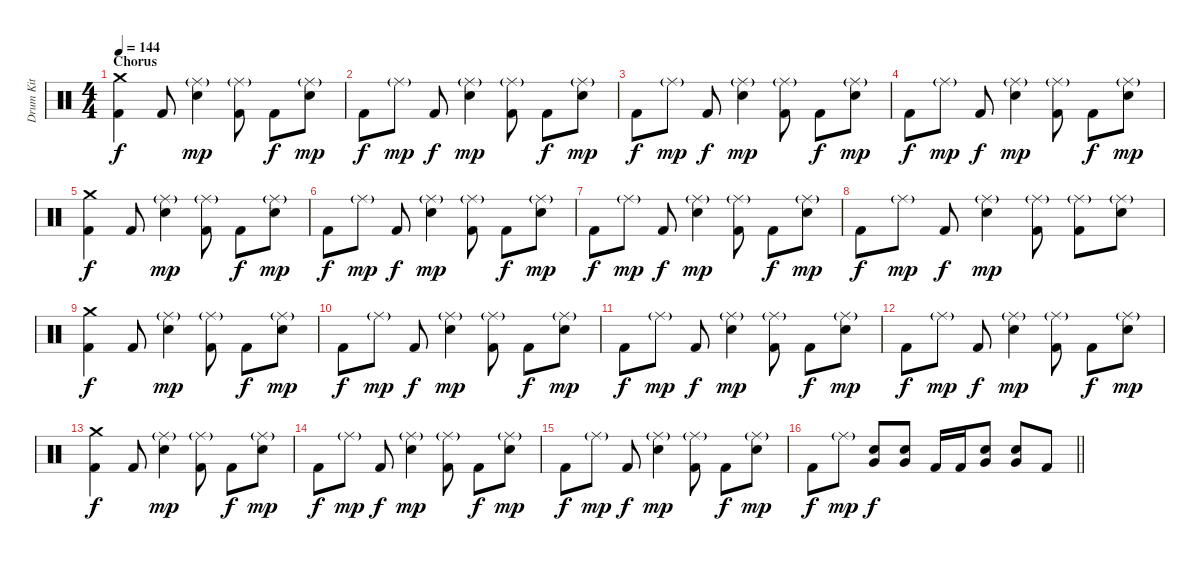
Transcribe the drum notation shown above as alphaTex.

\track ("Drum Kit" "Drum Kit") {instrument percussion}
\staff {score}
\articulation defaults
\ts (4 4)
\section ("" "Chorus")
\tempo 144
\clef neutral
\ks c
("Crash medium (hit)" "Kick (hit) 2").4{dy f} "Kick (hit) 2".8 ("Ride (middle)"{g} "Electric Snare (hit)").4{dy mp} ("Ride (middle)"{g} "Kick (hit) 2").8 "Kick (hit) 2".8{dy f} ("Ride (middle)"{g} "Electric Snare (hit)").8{dy mp} |
"Kick (hit) 2".8{dy f} "Ride (middle)"{g}.8{dy mp} "Kick (hit) 2".8{dy f} ("Ride (middle)"{g} "Electric Snare (hit)").4{dy mp} ("Ride (middle)"{g} "Kick (hit) 2").8 "Kick (hit) 2".8{dy f} ("Ride (middle)"{g} "Electric Snare (hit)").8{dy mp} |
"Kick (hit) 2".8{dy f} "Ride (middle)"{g}.8{dy mp} "Kick (hit) 2".8{dy f} ("Ride (middle)"{g} "Electric Snare (hit)").4{dy mp} ("Ride (middle)"{g} "Kick (hit) 2").8 "Kick (hit) 2".8{dy f} ("Ride (middle)"{g} "Electric Snare (hit)").8{dy mp} |
"Kick (hit) 2".8{dy f} "Ride (middle)"{g}.8{dy mp} "Kick (hit) 2".8{dy f} ("Ride (middle)"{g} "Electric Snare (hit)").4{dy mp} ("Ride (middle)"{g} "Kick (hit) 2").8 "Kick (hit) 2".8{dy f} ("Ride (middle)"{g} "Electric Snare (hit)").8{dy mp} |
("Crash medium (hit)" "Kick (hit) 2").4{dy f} "Kick (hit) 2".8 ("Ride (middle)"{g} "Electric Snare (hit)").4{dy mp} ("Ride (middle)"{g} "Kick (hit) 2").8 "Kick (hit) 2".8{dy f} ("Ride (middle)"{g} "Electric Snare (hit)").8{dy mp} |
"Kick (hit) 2".8{dy f} "Ride (middle)"{g}.8{dy mp} "Kick (hit) 2".8{dy f} ("Ride (middle)"{g} "Electric Snare (hit)").4{dy mp} ("Ride (middle)"{g} "Kick (hit) 2").8 "Kick (hit) 2".8{dy f} ("Ride (middle)"{g} "Electric Snare (hit)").8{dy mp} |
"Kick (hit) 2".8{dy f} "Ride (middle)"{g}.8{dy mp} "Kick (hit) 2".8{dy f} ("Ride (middle)"{g} "Electric Snare (hit)").4{dy mp} ("Ride (middle)"{g} "Kick (hit) 2").8 "Kick (hit) 2".8{dy f} ("Ride (middle)"{g} "Electric Snare (hit)").8{dy mp} |
"Kick (hit) 2".8{dy f} "Ride (middle)"{g}.8{dy mp} "Kick (hit) 2".8{dy f} ("Ride (middle)"{g} "Electric Snare (hit)").4{dy mp} ("Ride (middle)"{g} "Kick (hit) 2").8 ("Ride (middle)"{g} "Kick (hit) 2").8 ("Ride (middle)"{g} "Electric Snare (hit)").8 |
("Crash medium (hit)" "Kick (hit) 2").4{dy f} "Kick (hit) 2".8 ("Ride (middle)"{g} "Electric Snare (hit)").4{dy mp} ("Ride (middle)"{g} "Kick (hit) 2").8 "Kick (hit) 2".8{dy f} ("Ride (middle)"{g} "Electric Snare (hit)").8{dy mp} |
"Kick (hit) 2".8{dy f} "Ride (middle)"{g}.8{dy mp} "Kick (hit) 2".8{dy f} ("Ride (middle)"{g} "Electric Snare (hit)").4{dy mp} ("Ride (middle)"{g} "Kick (hit) 2").8 "Kick (hit) 2".8{dy f} ("Ride (middle)"{g} "Electric Snare (hit)").8{dy mp} |
"Kick (hit) 2".8{dy f} "Ride (middle)"{g}.8{dy mp} "Kick (hit) 2".8{dy f} ("Ride (middle)"{g} "Electric Snare (hit)").4{dy mp} ("Ride (middle)"{g} "Kick (hit) 2").8 "Kick (hit) 2".8{dy f} ("Ride (middle)"{g} "Electric Snare (hit)").8{dy mp} |
"Kick (hit) 2".8{dy f} "Ride (middle)"{g}.8{dy mp} "Kick (hit) 2".8{dy f} ("Ride (middle)"{g} "Electric Snare (hit)").4{dy mp} ("Ride (middle)"{g} "Kick (hit) 2").8 "Kick (hit) 2".8{dy f} ("Ride (middle)"{g} "Electric Snare (hit)").8{dy mp} |
("Crash medium (hit)" "Kick (hit) 2").4{dy f} "Kick (hit) 2".8 ("Ride (middle)"{g} "Electric Snare (hit)").4{dy mp} ("Ride (middle)"{g} "Kick (hit) 2").8 "Kick (hit) 2".8{dy f} ("Ride (middle)"{g} "Electric Snare (hit)").8{dy mp} |
"Kick (hit) 2".8{dy f} "Ride (middle)"{g}.8{dy mp} "Kick (hit) 2".8{dy f} ("Ride (middle)"{g} "Electric Snare (hit)").4{dy mp} ("Ride (middle)"{g} "Kick (hit) 2").8 "Kick (hit) 2".8{dy f} ("Ride (middle)"{g} "Electric Snare (hit)").8{dy mp} |
"Kick (hit) 2".8{dy f} "Ride (middle)"{g}.8{dy mp} "Kick (hit) 2".8{dy f} ("Ride (middle)"{g} "Electric Snare (hit)").4{dy mp} ("Ride (middle)"{g} "Kick (hit) 2").8 "Kick (hit) 2".8{dy f} ("Ride (middle)"{g} "Electric Snare (hit)").8{dy mp} |
\barLineRight lightlight "Kick (hit) 2".8{dy f} "Ride (middle)"{g}.8{dy mp}
("Very Low Tom (hit)" "Electric Snare (hit)").8{dy f} ("Very Low Tom (hit)" "Electric Snare (hit)").8 "Kick (hit) 2".16 "Kick (hit) 2".16 ("Very Low Tom (hit)" "Electric Snare (hit)").8 ("Very Low Tom (hit)" "Electric Snare (hit)").8 "Kick (hit) 2".8
